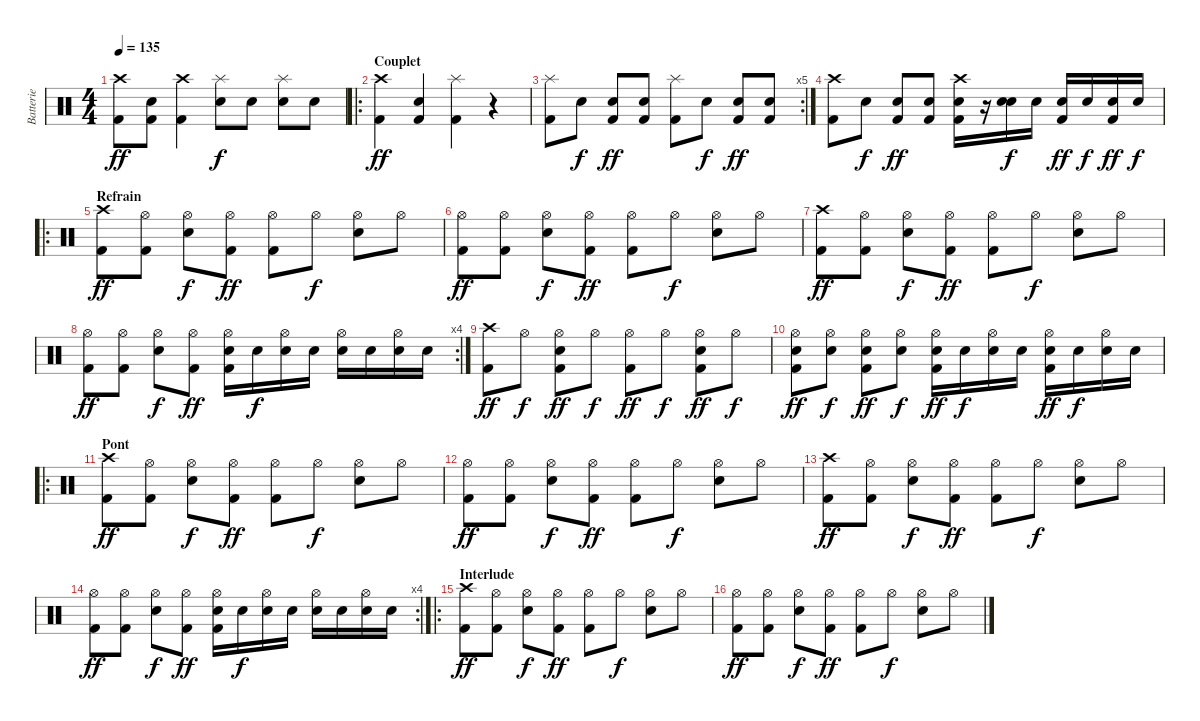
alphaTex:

\track ("Batterie" "Batterie") {instrument percussion}
\staff {score}
\articulation defaults
\ts (4 4)
\tempo 135
\clef neutral
\ks c
("Crash high (hit)" "Kick (hit) 2").8{dy ff} ("Kick (hit) 2" "Snare (hit) 2").8 ("Crash high (hit)" "Kick (hit) 2").4 ("Splash (hit)" "Snare (hit) 2").8{dy f} "Snare (hit) 2".8 ("Splash (hit)" "Snare (hit) 2").8 "Snare (hit) 2".8 |
\ro
\section ("" "Couplet")
("Crash high (hit)" "Kick (hit) 2").4{dy ff} ("Kick (hit) 2" "Electric Snare (hit)").4 ("Splash (hit)" "Kick (hit) 2").4 r.4 |
\rc 5
("Splash (hit)" "Kick (hit) 2").8 "Snare (hit) 2".8{dy f} ("Kick (hit) 2" "Electric Snare (hit)").8{dy ff} ("Kick (hit) 2" "Electric Snare (hit)").8 ("Splash (hit)" "Kick (hit) 2").8 "Snare (hit) 2".8{dy f} ("Kick (hit) 2" "Electric Snare (hit)").8{dy ff} ("Kick (hit) 2" "Electric Snare (hit)").8 |
("Crash high (hit)" "Kick (hit) 2").8 "Snare (hit) 2".8{dy f} ("Kick (hit) 2" "Electric Snare (hit)").8{dy ff} ("Kick (hit) 2" "Electric Snare (hit)").8 ("Crash high (hit)" "Kick (hit) 2" "Electric Snare (hit)").16 r.16 ("Electric Snare (hit)" "Snare (hit) 2").16{dy f} "Electric Snare (hit)".16 ("Kick (hit) 2" "Electric Snare (hit)").16{dy ff} "Electric Snare (hit)".16{dy f} ("Kick (hit) 2" "Electric Snare (hit)").16{dy ff} "Electric Snare (hit)".16{dy f} |
\ro
\section ("" "Refrain")
("Crash high (hit)" "Kick (hit) 2").8{dy ff} ("Hi-Hat (open)" "Kick (hit) 2").8 ("Hi-Hat (open)" "Snare (hit) 2").8{dy f} ("Hi-Hat (open)" "Kick (hit) 2").8{dy ff} ("Hi-Hat (open)" "Kick (hit) 2").8 "Hi-Hat (open)".8{dy f} ("Hi-Hat (open)" "Snare (hit) 2").8 "Hi-Hat (open)".8 |
("Hi-Hat (open)" "Kick (hit) 2").8{dy ff} ("Hi-Hat (open)" "Kick (hit) 2").8 ("Hi-Hat (open)" "Snare (hit) 2").8{dy f} ("Hi-Hat (open)" "Kick (hit) 2").8{dy ff} ("Hi-Hat (open)" "Kick (hit) 2").8 "Hi-Hat (open)".8{dy f} ("Hi-Hat (open)" "Snare (hit) 2").8 "Hi-Hat (open)".8 |
("Crash high (hit)" "Kick (hit) 2").8{dy ff} ("Hi-Hat (open)" "Kick (hit) 2").8 ("Hi-Hat (open)" "Snare (hit) 2").8{dy f} ("Hi-Hat (open)" "Kick (hit) 2").8{dy ff} ("Hi-Hat (open)" "Kick (hit) 2").8 "Hi-Hat (open)".8{dy f} ("Hi-Hat (open)" "Snare (hit) 2").8 "Hi-Hat (open)".8 |
\rc 4
("Hi-Hat (open)" "Kick (hit) 2").8{dy ff} ("Hi-Hat (open)" "Kick (hit) 2").8 ("Hi-Hat (open)" "Snare (hit) 2").8{dy f} ("Hi-Hat (open)" "Kick (hit) 2").8{dy ff} ("Hi-Hat (open)" "Kick (hit) 2" "Snare (hit) 2").16 "Snare (hit) 2".16{dy f} ("Hi-Hat (open)" "Snare (hit) 2").16 "Snare (hit) 2".16 ("Hi-Hat (open)" "Snare (hit) 2").16 "Snare (hit) 2".16 ("Hi-Hat (open)" "Snare (hit) 2").16 "Snare (hit) 2".16 |
("Crash high (hit)" "Kick (hit) 2").8{dy ff} "Hi-Hat (open)".8{dy f} ("Hi-Hat (open)" "Kick (hit) 2" "Snare (hit) 2").8{dy ff} "Hi-Hat (open)".8{dy f} ("Hi-Hat (open)" "Kick (hit) 2").8{dy ff} "Hi-Hat (open)".8{dy f} ("Hi-Hat (open)" "Kick (hit) 2" "Snare (hit) 2").8{dy ff} "Hi-Hat (open)".8{dy f} |
("Hi-Hat (open)" "Kick (hit) 2" "Snare (hit) 2").8{dy ff} ("Hi-Hat (open)" "Snare (hit) 2").8{dy f} ("Hi-Hat (open)" "Kick (hit) 2" "Snare (hit) 2").8{dy ff} ("Hi-Hat (open)" "Snare (hit) 2").8{dy f} ("Hi-Hat (open)" "Kick (hit) 2" "Snare (hit) 2").16{dy ff} "Snare (hit) 2".16{dy f} ("Hi-Hat (open)" "Snare (hit) 2").16 "Snare (hit) 2".16 ("Hi-Hat (open)" "Kick (hit) 2" "Snare (hit) 2").16{dy ff} "Snare (hit) 2".16{dy f} ("Hi-Hat (open)" "Snare (hit) 2").16 "Snare (hit) 2".16 |
\ro
\section ("" "Pont")
("Crash high (hit)" "Kick (hit) 2").8{dy ff} ("Hi-Hat (open)" "Kick (hit) 2").8 ("Hi-Hat (open)" "Snare (hit) 2").8{dy f} ("Hi-Hat (open)" "Kick (hit) 2").8{dy ff} ("Hi-Hat (open)" "Kick (hit) 2").8 "Hi-Hat (open)".8{dy f} ("Hi-Hat (open)" "Snare (hit) 2").8 "Hi-Hat (open)".8 |
("Hi-Hat (open)" "Kick (hit) 2").8{dy ff} ("Hi-Hat (open)" "Kick (hit) 2").8 ("Hi-Hat (open)" "Snare (hit) 2").8{dy f} ("Hi-Hat (open)" "Kick (hit) 2").8{dy ff} ("Hi-Hat (open)" "Kick (hit) 2").8 "Hi-Hat (open)".8{dy f} ("Hi-Hat (open)" "Snare (hit) 2").8 "Hi-Hat (open)".8 |
("Crash high (hit)" "Kick (hit) 2").8{dy ff} ("Hi-Hat (open)" "Kick (hit) 2").8 ("Hi-Hat (open)" "Snare (hit) 2").8{dy f} ("Hi-Hat (open)" "Kick (hit) 2").8{dy ff} ("Hi-Hat (open)" "Kick (hit) 2").8 "Hi-Hat (open)".8{dy f} ("Hi-Hat (open)" "Snare (hit) 2").8 "Hi-Hat (open)".8 |
\rc 4
("Hi-Hat (open)" "Kick (hit) 2").8{dy ff} ("Hi-Hat (open)" "Kick (hit) 2").8 ("Hi-Hat (open)" "Snare (hit) 2").8{dy f} ("Hi-Hat (open)" "Kick (hit) 2").8{dy ff} ("Hi-Hat (open)" "Kick (hit) 2" "Snare (hit) 2").16 "Snare (hit) 2".16{dy f} ("Hi-Hat (open)" "Snare (hit) 2").16 "Snare (hit) 2".16 ("Hi-Hat (open)" "Snare (hit) 2").16 "Snare (hit) 2".16 ("Hi-Hat (open)" "Snare (hit) 2").16 "Snare (hit) 2".16 |
\ro
\section ("" "Interlude")
("Crash high (hit)" "Kick (hit) 2").8{dy ff} ("Hi-Hat (open)" "Kick (hit) 2").8 ("Hi-Hat (open)" "Snare (hit) 2").8{dy f} ("Hi-Hat (open)" "Kick (hit) 2").8{dy ff} ("Hi-Hat (open)" "Kick (hit) 2").8 "Hi-Hat (open)".8{dy f} ("Hi-Hat (open)" "Snare (hit) 2").8 "Hi-Hat (open)".8 |
("Hi-Hat (open)" "Kick (hit) 2").8{dy ff} ("Hi-Hat (open)" "Kick (hit) 2").8 ("Hi-Hat (open)" "Snare (hit) 2").8{dy f} ("Hi-Hat (open)" "Kick (hit) 2").8{dy ff} ("Hi-Hat (open)" "Kick (hit) 2").8 "Hi-Hat (open)".8{dy f} ("Hi-Hat (open)" "Snare (hit) 2").8 "Hi-Hat (open)".8
